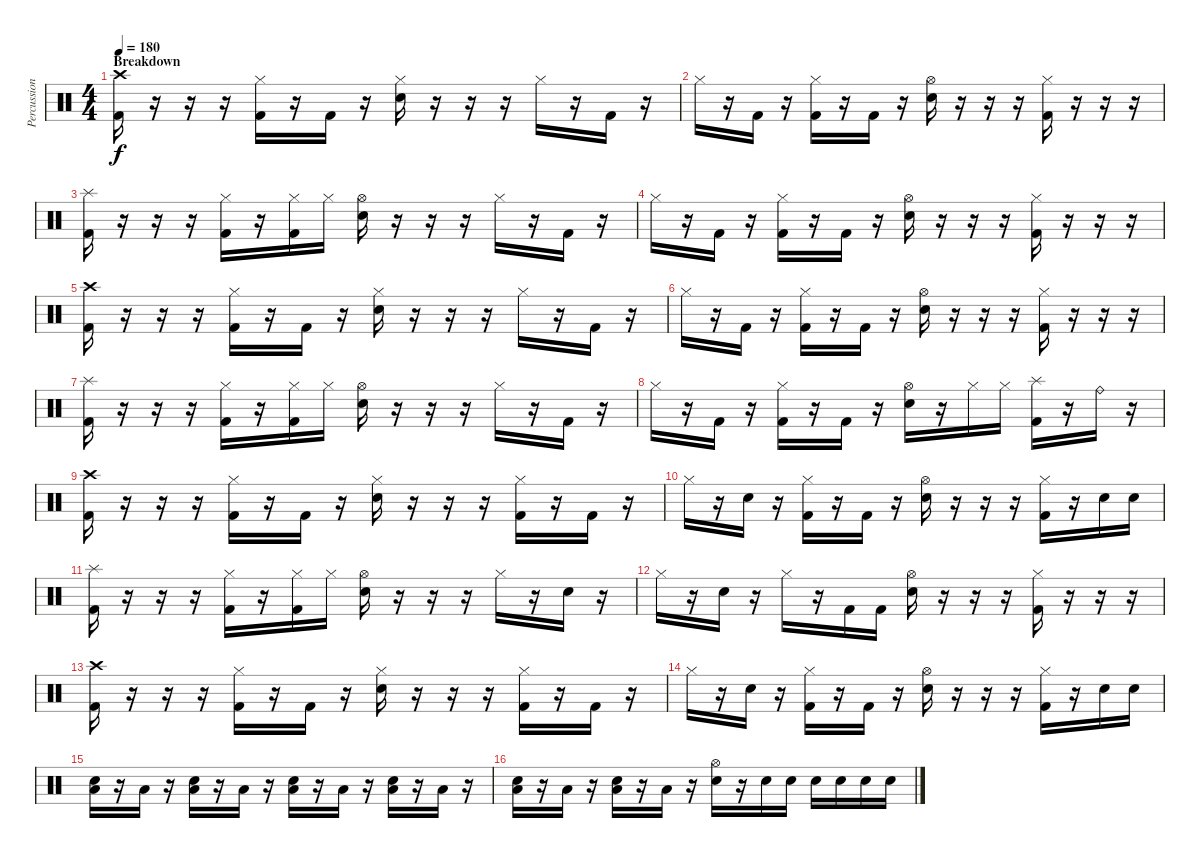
\track ("Percussion" "Percussion") {instrument percussion}
\staff {score}
\articulation defaults
\ts (4 4)
\section ("" "Breakdown")
\tempo 180
\clef neutral
\ks c
("Crash high (hit)" "Kick (hit) 2").16{dy f} r.16 r.16 r.16 ("Hi-Hat (closed)" "Kick (hit) 2").16 r.16 "Kick (hit) 2".16 r.16 ("Hi-Hat (closed)" "Electric Snare (hit)").16 r.16 r.16 r.16 "Hi-Hat (closed)".16 r.16 "Kick (hit) 2".16 r.16 |
"Hi-Hat (closed)".16 r.16 "Kick (hit) 2".16 r.16 ("Hi-Hat (closed)" "Kick (hit) 2").16 r.16 "Kick (hit) 2".16 r.16 ("Hi-Hat (open)" "Electric Snare (hit)").16 r.16 r.16 r.16 ("Hi-Hat (closed)" "Kick (hit) 2").16 r.16 r.16 r.16 |
("Splash (hit)" "Kick (hit) 2").16 r.16 r.16 r.16 ("Hi-Hat (closed)" "Kick (hit) 2").16 r.16 ("Hi-Hat (closed)" "Kick (hit) 2").16 "Hi-Hat (closed)".16 ("Hi-Hat (open)" "Electric Snare (hit)").16 r.16 r.16 r.16 "Hi-Hat (closed)".16 r.16 "Kick (hit) 2".16 r.16 |
"Hi-Hat (closed)".16 r.16 "Kick (hit) 2".16 r.16 ("Hi-Hat (closed)" "Kick (hit) 2").16 r.16 "Kick (hit) 2".16 r.16 ("Hi-Hat (open)" "Electric Snare (hit)").16 r.16 r.16 r.16 ("Hi-Hat (closed)" "Kick (hit) 2").16 r.16 r.16 r.16 |
("Crash high (hit)" "Kick (hit) 2").16 r.16 r.16 r.16 ("Hi-Hat (closed)" "Kick (hit) 2").16 r.16 "Kick (hit) 2".16 r.16 ("Hi-Hat (closed)" "Electric Snare (hit)").16 r.16 r.16 r.16 "Hi-Hat (closed)".16 r.16 "Kick (hit) 2".16 r.16 |
"Hi-Hat (closed)".16 r.16 "Kick (hit) 2".16 r.16 ("Hi-Hat (closed)" "Kick (hit) 2").16 r.16 "Kick (hit) 2".16 r.16 ("Hi-Hat (open)" "Electric Snare (hit)").16 r.16 r.16 r.16 ("Hi-Hat (closed)" "Kick (hit) 2").16 r.16 r.16 r.16 |
("Splash (hit)" "Kick (hit) 2").16 r.16 r.16 r.16 ("Hi-Hat (closed)" "Kick (hit) 2").16 r.16 ("Hi-Hat (closed)" "Kick (hit) 2").16 "Hi-Hat (closed)".16 ("Hi-Hat (open)" "Electric Snare (hit)").16 r.16 r.16 r.16 "Hi-Hat (closed)".16 r.16 "Kick (hit) 2".16 r.16 |
"Hi-Hat (closed)".16 r.16 "Kick (hit) 2".16 r.16 ("Hi-Hat (closed)" "Kick (hit) 2").16 r.16 "Kick (hit) 2".16 r.16 ("Hi-Hat (open)" "Electric Snare (hit)").16 r.16 "Hi-Hat (closed)".16 "Hi-Hat (closed)".16 ("Splash (hit)" "Kick (hit) 2").16 r.16 "Ride (bell)".16 r.16 |
("Crash high (hit)" "Kick (hit) 2").16 r.16 r.16 r.16 ("Hi-Hat (closed)" "Kick (hit) 2").16 r.16 "Kick (hit) 2".16 r.16 ("Hi-Hat (closed)" "Electric Snare (hit)").16 r.16 r.16 r.16 ("Hi-Hat (closed)" "Kick (hit) 2").16 r.16 "Kick (hit) 2".16 r.16 |
"Hi-Hat (closed)".16 r.16 "Electric Snare (hit)".16 r.16 ("Hi-Hat (closed)" "Kick (hit) 2").16 r.16 "Kick (hit) 2".16 r.16 ("Hi-Hat (open)" "Electric Snare (hit)").16 r.16 r.16 r.16 ("Hi-Hat (closed)" "Kick (hit) 2").16 r.16 "Electric Snare (hit)".16 "Electric Snare (hit)".16 |
("Splash (hit)" "Kick (hit) 2").16 r.16 r.16 r.16 ("Hi-Hat (closed)" "Kick (hit) 2").16 r.16 ("Hi-Hat (closed)" "Kick (hit) 2").16 "Hi-Hat (closed)".16 ("Hi-Hat (open)" "Electric Snare (hit)").16 r.16 r.16 r.16 "Hi-Hat (closed)".16 r.16 "Electric Snare (hit)".16 r.16 |
"Hi-Hat (closed)".16 r.16 "Electric Snare (hit)".16 r.16 "Hi-Hat (closed)".16 r.16 "Kick (hit) 2".16 "Kick (hit) 2".16 ("Hi-Hat (open)" "Electric Snare (hit)").16 r.16 r.16 r.16 ("Hi-Hat (closed)" "Kick (hit) 2").16 r.16 r.16 r.16 |
("Crash high (hit)" "Kick (hit) 2").16 r.16 r.16 r.16 ("Hi-Hat (closed)" "Kick (hit) 2").16 r.16 "Kick (hit) 2".16 r.16 ("Hi-Hat (closed)" "Electric Snare (hit)").16 r.16 r.16 r.16 ("Hi-Hat (closed)" "Kick (hit) 2").16 r.16 "Kick (hit) 2".16 r.16 |
"Hi-Hat (closed)".16 r.16 "Electric Snare (hit)".16 r.16 ("Hi-Hat (closed)" "Kick (hit) 2").16 r.16 "Kick (hit) 2".16 r.16 ("Hi-Hat (open)" "Electric Snare (hit)").16 r.16 r.16 r.16 ("Hi-Hat (closed)" "Kick (hit) 2").16 r.16 "Electric Snare (hit)".16 "Electric Snare (hit)".16 |
("Low Floor Tom (hit)" "Electric Snare (hit)").16 r.16 "Low Floor Tom (hit)".16 r.16 ("Low Floor Tom (hit)" "Electric Snare (hit)").16 r.16 "Low Floor Tom (hit)".16 r.16 ("Low Floor Tom (hit)" "Electric Snare (hit)").16 r.16 "Low Floor Tom (hit)".16 r.16 ("Low Floor Tom (hit)" "Electric Snare (hit)").16 r.16 "Low Floor Tom (hit)".16 r.16 |
("Low Floor Tom (hit)" "Electric Snare (hit)").16 r.16 "Low Floor Tom (hit)".16 r.16 ("Low Floor Tom (hit)" "Electric Snare (hit)").16 r.16 "Low Floor Tom (hit)".16 r.16 ("Hi-Hat (open)" "Electric Snare (hit)").16 r.16 "Electric Snare (hit)".16 "Electric Snare (hit)".16 "Electric Snare (hit)".16 "Electric Snare (hit)".16 "Electric Snare (hit)".16 "Electric Snare (hit)".16
